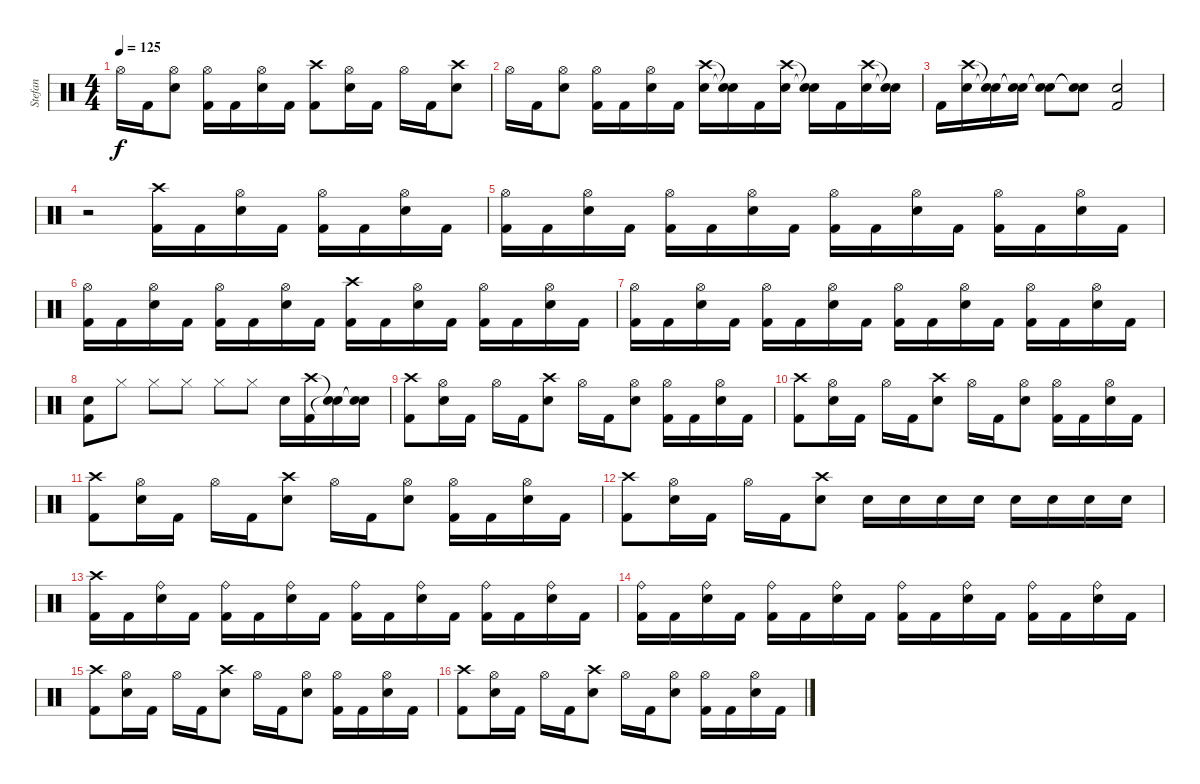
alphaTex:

\track ("Stefan" "Stefan") {instrument percussion}
\staff {score}
\articulation defaults
\ts (4 4)
\tempo 125
\clef neutral
\ks c "Hi-Hat (open)".16{dy f} "Kick (hit) 2".16
("Hi-Hat (open)" "Electric Snare (hit)").8 ("Hi-Hat (open)" "Kick (hit) 2").16 "Kick (hit) 2".16 ("Hi-Hat (open)" "Electric Snare (hit)").16 "Kick (hit) 2".16 ("Crash high (hit)" "Kick (hit) 2").8 ("Electric Snare (hit)" "Hi-Hat (open)").16 "Kick (hit) 2".16 "Hi-Hat (open)".16 "Kick (hit) 2".16 ("Crash high (hit)" "Electric Snare (hit)").8 |
"Hi-Hat (open)".16 "Kick (hit) 2".16 ("Hi-Hat (open)" "Electric Snare (hit)").8 ("Hi-Hat (open)" "Kick (hit) 2").16 "Kick (hit) 2".16 ("Hi-Hat (open)" "Electric Snare (hit)").16 "Kick (hit) 2".16 ("Crash high (hit)" "Electric Snare (hit)").16 ("Snare (hit)"{t} "Snare (hit)"{t}).16 "Kick (hit) 2".16 ("Crash high (hit)" "Electric Snare (hit)").16 ("Snare (hit)"{t} "Snare (hit)"{t}).16 "Kick (hit) 2".16 ("Crash high (hit)" "Electric Snare (hit)").16 ("Snare (hit)"{t} "Snare (hit)"{t}).16 |
"Kick (hit) 2".16 ("Crash high (hit)" "Electric Snare (hit)").16 ("Snare (hit)"{t} "Snare (hit)"{t}).16 ("Snare (hit)"{t} "Snare (hit)"{t}).16 ("Snare (hit)"{t} "Snare (hit)"{t}).8 ("Snare (hit)"{t} "Snare (hit)"{t}).8 ("Kick (hit) 2" "Electric Snare (hit)").2 |
r.2 ("Crash high (hit)" "Kick (hit) 2").16 "Kick (hit) 2".16 ("Hi-Hat (open)" "Electric Snare (hit)").16 "Kick (hit) 2".16 ("Hi-Hat (open)" "Kick (hit) 2").16 "Kick (hit) 2".16 ("Hi-Hat (open)" "Electric Snare (hit)").16 "Kick (hit) 2".16 |
("Hi-Hat (open)" "Kick (hit) 2").16 "Kick (hit) 2".16 ("Hi-Hat (open)" "Electric Snare (hit)").16 "Kick (hit) 2".16 ("Hi-Hat (open)" "Kick (hit) 2").16 "Kick (hit) 2".16 ("Hi-Hat (open)" "Electric Snare (hit)").16 "Kick (hit) 2".16 ("Hi-Hat (open)" "Kick (hit) 2").16 "Kick (hit) 2".16 ("Hi-Hat (open)" "Electric Snare (hit)").16 "Kick (hit) 2".16 ("Hi-Hat (open)" "Kick (hit) 2").16 "Kick (hit) 2".16 ("Hi-Hat (open)" "Electric Snare (hit)").16 "Kick (hit) 2".16 |
("Hi-Hat (open)" "Kick (hit) 2").16 "Kick (hit) 2".16 ("Hi-Hat (open)" "Electric Snare (hit)").16 "Kick (hit) 2".16 ("Hi-Hat (open)" "Kick (hit) 2").16 "Kick (hit) 2".16 ("Hi-Hat (open)" "Electric Snare (hit)").16 "Kick (hit) 2".16 ("Crash high (hit)" "Kick (hit) 2").16 "Kick (hit) 2".16 ("Hi-Hat (open)" "Electric Snare (hit)").16 "Kick (hit) 2".16 ("Hi-Hat (open)" "Kick (hit) 2").16 "Kick (hit) 2".16 ("Hi-Hat (open)" "Electric Snare (hit)").16 "Kick (hit) 2".16 |
("Hi-Hat (open)" "Kick (hit) 2").16 "Kick (hit) 2".16 ("Hi-Hat (open)" "Electric Snare (hit)").16 "Kick (hit) 2".16 ("Hi-Hat (open)" "Kick (hit) 2").16 "Kick (hit) 2".16 ("Hi-Hat (open)" "Electric Snare (hit)").16 "Kick (hit) 2".16 ("Hi-Hat (open)" "Kick (hit) 2").16 "Kick (hit) 2".16 ("Hi-Hat (open)" "Electric Snare (hit)").16 "Kick (hit) 2".16 ("Hi-Hat (open)" "Kick (hit) 2").16 "Kick (hit) 2".16 ("Hi-Hat (open)" "Electric Snare (hit)").16 "Kick (hit) 2".16 |
("Kick (hit) 2" "Electric Snare (hit)").8 "Hi-Hat (closed)".8 "Hi-Hat (closed)".8 "Hi-Hat (closed)".8 "Hi-Hat (closed)".8 "Hi-Hat (closed)".8 "Electric Snare (hit)".16 ("Crash high (hit)" "Kick (hit) 2").16 ("Snare (hit)"{t} "Snare (hit)"{t}).16 ("Snare (hit)"{t} "Snare (hit)"{t}).16 |
("Crash high (hit)" "Kick (hit) 2").8 ("Hi-Hat (open)" "Electric Snare (hit)").16 "Kick (hit) 2".16 "Hi-Hat (open)".16 "Kick (hit) 2".16 ("Crash high (hit)" "Electric Snare (hit)").8 "Hi-Hat (open)".16 "Kick (hit) 2".16 ("Hi-Hat (open)" "Electric Snare (hit)").8 ("Hi-Hat (open)" "Kick (hit) 2").16 "Kick (hit) 2".16 ("Hi-Hat (open)" "Electric Snare (hit)").16 "Kick (hit) 2".16 |
("Crash high (hit)" "Kick (hit) 2").8 ("Hi-Hat (open)" "Electric Snare (hit)").16 "Kick (hit) 2".16 "Hi-Hat (open)".16 "Kick (hit) 2".16 ("Crash high (hit)" "Electric Snare (hit)").8 "Hi-Hat (open)".16 "Kick (hit) 2".16 ("Hi-Hat (open)" "Electric Snare (hit)").8 ("Hi-Hat (open)" "Kick (hit) 2").16 "Kick (hit) 2".16 ("Hi-Hat (open)" "Electric Snare (hit)").16 "Kick (hit) 2".16 |
("Crash high (hit)" "Kick (hit) 2").8 ("Hi-Hat (open)" "Electric Snare (hit)").16 "Kick (hit) 2".16 "Hi-Hat (open)".16 "Kick (hit) 2".16 ("Crash high (hit)" "Electric Snare (hit)").8 "Hi-Hat (open)".16 "Kick (hit) 2".16 ("Hi-Hat (open)" "Electric Snare (hit)").8 ("Hi-Hat (open)" "Kick (hit) 2").16 "Kick (hit) 2".16 ("Hi-Hat (open)" "Electric Snare (hit)").16 "Kick (hit) 2".16 |
("Crash high (hit)" "Kick (hit) 2").8 ("Hi-Hat (open)" "Electric Snare (hit)").16 "Kick (hit) 2".16 "Hi-Hat (open)".16 "Kick (hit) 2".16 ("Crash high (hit)" "Electric Snare (hit)").8 "Electric Snare (hit)".16 "Electric Snare (hit)".16 "Electric Snare (hit)".16 "Electric Snare (hit)".16 "Electric Snare (hit)".16 "Electric Snare (hit)".16 "Electric Snare (hit)".16 "Electric Snare (hit)".16 |
("Crash high (hit)" "Kick (hit) 2").16 "Kick (hit) 2".16 ("Ride (bell)" "Electric Snare (hit)").16 "Kick (hit) 2".16 ("Ride (bell)" "Kick (hit) 2").16 "Kick (hit) 2".16 ("Ride (bell)" "Electric Snare (hit)").16 "Kick (hit) 2".16 ("Ride (bell)" "Kick (hit) 2").16 "Kick (hit) 2".16 ("Ride (bell)" "Electric Snare (hit)").16 "Kick (hit) 2".16 ("Ride (bell)" "Kick (hit) 2").16 "Kick (hit) 2".16 ("Ride (bell)" "Electric Snare (hit)").16 "Kick (hit) 2".16 |
("Ride (bell)" "Kick (hit) 2").16 "Kick (hit) 2".16 ("Ride (bell)" "Electric Snare (hit)").16 "Kick (hit) 2".16 ("Ride (bell)" "Kick (hit) 2").16 "Kick (hit) 2".16 ("Ride (bell)" "Electric Snare (hit)").16 "Kick (hit) 2".16 ("Ride (bell)" "Kick (hit) 2").16 "Kick (hit) 2".16 ("Ride (bell)" "Electric Snare (hit)").16 "Kick (hit) 2".16 ("Ride (bell)" "Kick (hit) 2").16 "Kick (hit) 2".16 ("Ride (bell)" "Electric Snare (hit)").16 "Kick (hit) 2".16 |
("Crash high (hit)" "Kick (hit) 2").8 ("Hi-Hat (open)" "Electric Snare (hit)").16 "Kick (hit) 2".16 "Hi-Hat (open)".16 "Kick (hit) 2".16 ("Crash high (hit)" "Electric Snare (hit)").8 "Hi-Hat (open)".16 "Kick (hit) 2".16 ("Hi-Hat (open)" "Electric Snare (hit)").8 ("Hi-Hat (open)" "Kick (hit) 2").16 "Kick (hit) 2".16 ("Hi-Hat (open)" "Electric Snare (hit)").16 "Kick (hit) 2".16 |
("Crash high (hit)" "Kick (hit) 2").8 ("Hi-Hat (open)" "Electric Snare (hit)").16 "Kick (hit) 2".16 "Hi-Hat (open)".16 "Kick (hit) 2".16 ("Crash high (hit)" "Electric Snare (hit)").8 "Hi-Hat (open)".16 "Kick (hit) 2".16 ("Hi-Hat (open)" "Electric Snare (hit)").8 ("Hi-Hat (open)" "Kick (hit) 2").16 "Kick (hit) 2".16 ("Hi-Hat (open)" "Electric Snare (hit)").16 "Kick (hit) 2".16
